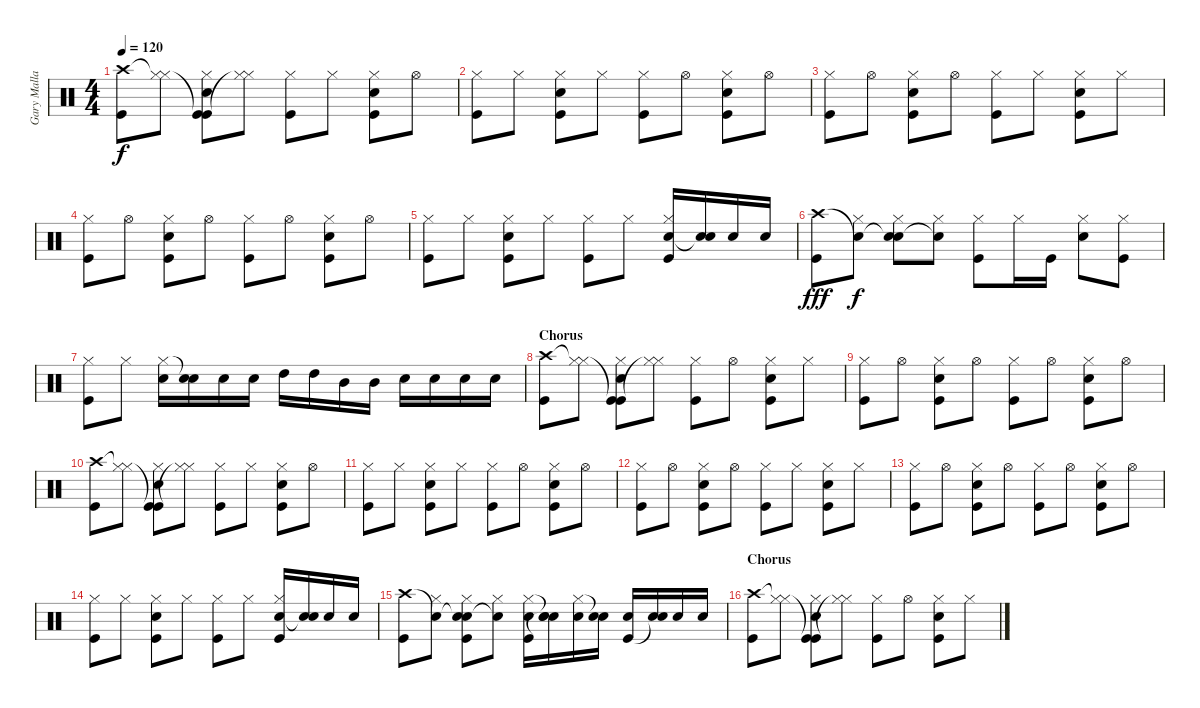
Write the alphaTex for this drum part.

\track ("Gary Mallaber" "Gary Malla") {instrument percussion}
\staff {score}
\articulation defaults
\ts (4 4)
\tempo 120
\clef neutral
\ks c
("Crash high (hit)" "Kick (hit)").8{dy f} ("Hi-Hat (closed)"{t} "Hi-Hat (closed)").8 ("Kick (hit)"{t} "Hi-Hat (closed)" "Snare (hit) 2" "Kick (hit)").8 ("Hi-Hat (closed)"{t} "Hi-Hat (closed)").8 ("Hi-Hat (closed)" "Kick (hit)").8 "Hi-Hat (closed)".8 ("Hi-Hat (closed)" "Snare (hit) 2" "Kick (hit)").8 "Hi-Hat (open)".8 |
("Hi-Hat (closed)" "Kick (hit)").8 "Hi-Hat (closed)".8 ("Hi-Hat (closed)" "Snare (hit) 2" "Kick (hit)").8 "Hi-Hat (closed)".8 ("Hi-Hat (closed)" "Kick (hit)").8 "Hi-Hat (open)".8 ("Hi-Hat (closed)" "Snare (hit) 2" "Kick (hit)").8 "Hi-Hat (open)".8 |
("Hi-Hat (closed)" "Kick (hit)").8 "Hi-Hat (open)".8 ("Hi-Hat (closed)" "Snare (hit) 2" "Kick (hit)").8 "Hi-Hat (open)".8 ("Hi-Hat (closed)" "Kick (hit)").8 "Hi-Hat (closed)".8 ("Hi-Hat (closed)" "Snare (hit) 2" "Kick (hit)").8 "Hi-Hat (closed)".8 |
("Hi-Hat (closed)" "Kick (hit)").8 "Hi-Hat (open)".8 ("Hi-Hat (closed)" "Snare (hit) 2" "Kick (hit)").8 "Hi-Hat (open)".8 ("Hi-Hat (closed)" "Kick (hit)").8 "Hi-Hat (open)".8 ("Hi-Hat (closed)" "Snare (hit) 2" "Kick (hit)").8 "Hi-Hat (open)".8 |
("Hi-Hat (closed)" "Kick (hit)").8 "Hi-Hat (closed)".8 ("Hi-Hat (closed)" "Snare (hit) 2" "Kick (hit)").8 "Hi-Hat (closed)".8 ("Hi-Hat (closed)" "Kick (hit)").8 "Hi-Hat (closed)".8 ("Hi-Hat (closed)" "Snare (hit) 2" "Kick (hit)").16 ("Snare (hit) 2" "Snare (hit)"{t}).16 "Snare (hit) 2".16 "Snare (hit) 2".16 |
("Crash high (hit)" "Kick (hit)").8{dy fff} ("Snare (hit)"{t} "Hi-Hat (closed)").8{dy f} ("Snare (hit)"{t} "Hi-Hat (closed)" "Snare (hit) 2").8 ("Snare (hit)"{t} "Hi-Hat (closed)").8 ("Hi-Hat (closed)" "Kick (hit)").8 "Hi-Hat (closed)".16 "Kick (hit)".16 ("Hi-Hat (closed)" "Snare (hit) 2").8 ("Hi-Hat (closed)" "Kick (hit)").8 |
("Hi-Hat (closed)" "Kick (hit)").8 "Hi-Hat (closed)".8 ("Hi-Hat (closed)" "Snare (hit) 2").16 ("Snare (hit)"{t} "Snare (hit) 2").16 "Snare (hit) 2".16 "Snare (hit) 2".16 "High Tom (hit)".16 "High Tom (hit)".16 "Mid Tom (hit)".16 "Mid Tom (hit)".16 "Snare (hit) 2".16 "Snare (hit) 2".16 "Snare (hit) 2".16 "Snare (hit) 2".16 |
\section ("" "Chorus")
("Crash high (hit)" "Kick (hit)").8 ("Hi-Hat (closed)"{t} "Hi-Hat (closed)").8 ("Kick (hit)"{t} "Hi-Hat (closed)" "Snare (hit) 2" "Kick (hit)").8 ("Hi-Hat (closed)"{t} "Hi-Hat (closed)").8 ("Hi-Hat (closed)" "Kick (hit)").8 "Hi-Hat (open)".8 ("Hi-Hat (closed)" "Snare (hit) 2" "Kick (hit)").8 "Hi-Hat (closed)".8 |
("Hi-Hat (closed)" "Kick (hit)").8 "Hi-Hat (open)".8 ("Hi-Hat (closed)" "Snare (hit) 2" "Kick (hit)").8 "Hi-Hat (open)".8 ("Hi-Hat (closed)" "Kick (hit)").8 "Hi-Hat (open)".8 ("Hi-Hat (closed)" "Snare (hit) 2" "Kick (hit)").8 "Hi-Hat (open)".8 |
("Crash high (hit)" "Kick (hit)").8 ("Hi-Hat (closed)"{t} "Hi-Hat (closed)").8 ("Kick (hit)"{t} "Hi-Hat (closed)" "Snare (hit) 2" "Kick (hit)").8 ("Hi-Hat (closed)"{t} "Hi-Hat (closed)").8 ("Hi-Hat (closed)" "Kick (hit)").8 "Hi-Hat (closed)".8 ("Hi-Hat (closed)" "Snare (hit) 2" "Kick (hit)").8 "Hi-Hat (open)".8 |
("Hi-Hat (closed)" "Kick (hit)").8 "Hi-Hat (closed)".8 ("Hi-Hat (closed)" "Snare (hit) 2" "Kick (hit)").8 "Hi-Hat (closed)".8 ("Hi-Hat (closed)" "Kick (hit)").8 "Hi-Hat (open)".8 ("Hi-Hat (closed)" "Snare (hit) 2" "Kick (hit)").8 "Hi-Hat (open)".8 |
("Hi-Hat (closed)" "Kick (hit)").8 "Hi-Hat (open)".8 ("Hi-Hat (closed)" "Snare (hit) 2" "Kick (hit)").8 "Hi-Hat (open)".8 ("Hi-Hat (closed)" "Kick (hit)").8 "Hi-Hat (closed)".8 ("Hi-Hat (closed)" "Snare (hit) 2" "Kick (hit)").8 "Hi-Hat (closed)".8 |
("Hi-Hat (closed)" "Kick (hit)").8 "Hi-Hat (open)".8 ("Hi-Hat (closed)" "Snare (hit) 2" "Kick (hit)").8 "Hi-Hat (open)".8 ("Hi-Hat (closed)" "Kick (hit)").8 "Hi-Hat (open)".8 ("Hi-Hat (closed)" "Snare (hit) 2" "Kick (hit)").8 "Hi-Hat (open)".8 |
("Hi-Hat (closed)" "Kick (hit)").8 "Hi-Hat (closed)".8 ("Hi-Hat (closed)" "Snare (hit) 2" "Kick (hit)").8 "Hi-Hat (closed)".8 ("Hi-Hat (closed)" "Kick (hit)").8 "Hi-Hat (closed)".8 ("Hi-Hat (closed)" "Snare (hit) 2" "Kick (hit)").16 ("Snare (hit) 2" "Snare (hit)"{t}).16 "Snare (hit) 2".16 "Snare (hit) 2".16 |
("Crash high (hit)" "Kick (hit)").8 ("Snare (hit)"{t} "Hi-Hat (closed)").8 ("Snare (hit)"{t} "Hi-Hat (closed)" "Snare (hit) 2" "Kick (hit)").8 ("Snare (hit)"{t} "Hi-Hat (closed)").8 ("Hi-Hat (closed)" "Snare (hit) 2" "Kick (hit)").16 ("Snare (hit)"{t} "Snare (hit) 2" "Snare (hit)"{t}).16 ("Hi-Hat (closed)" "Snare (hit) 2").16 ("Snare (hit)"{t} "Snare (hit) 2").16 ("Snare (hit) 2" "Kick (hit)").16 ("Snare (hit) 2" "Snare (hit)"{t}).16 "Snare (hit) 2".16 "Snare (hit) 2".16 |
\section ("" "Chorus")
("Crash high (hit)" "Kick (hit)").8 ("Hi-Hat (closed)"{t} "Hi-Hat (closed)").8 ("Kick (hit)"{t} "Hi-Hat (closed)" "Snare (hit) 2" "Kick (hit)").8 ("Hi-Hat (closed)"{t} "Hi-Hat (closed)").8 ("Hi-Hat (closed)" "Kick (hit)").8 "Hi-Hat (open)".8 ("Hi-Hat (closed)" "Snare (hit) 2" "Kick (hit)").8 "Hi-Hat (closed)".8
